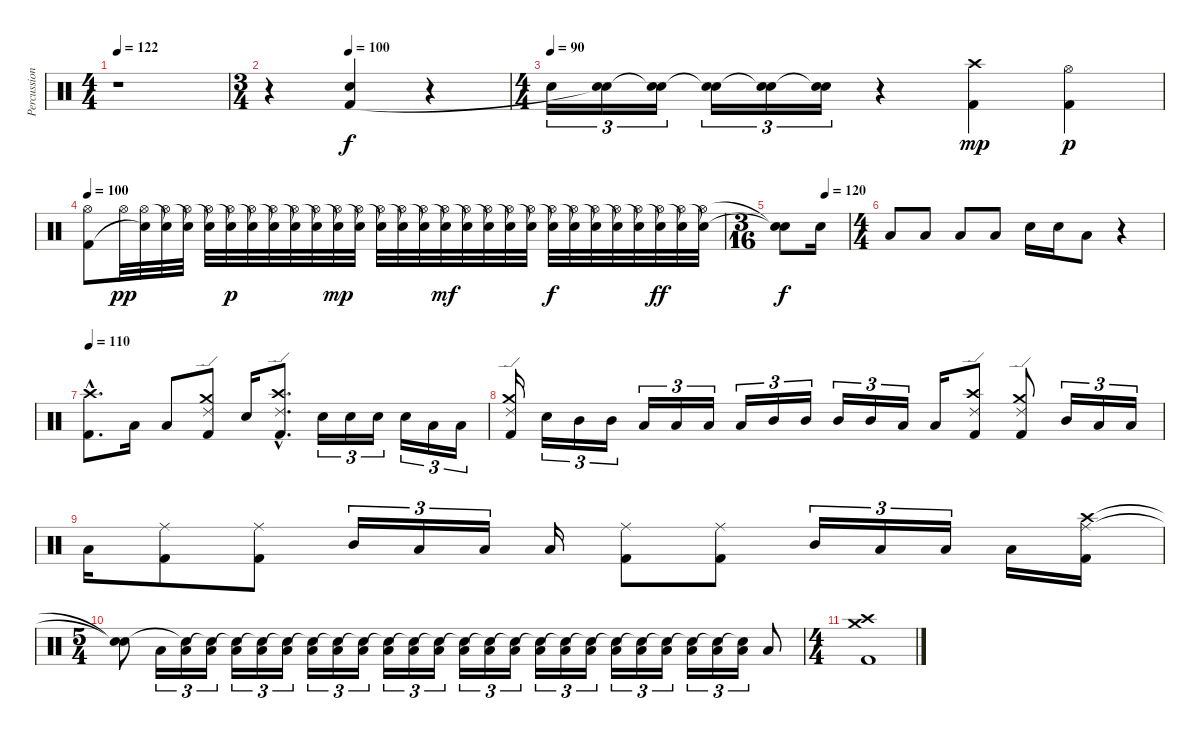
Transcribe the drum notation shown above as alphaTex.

\track ("Percussion" "Percussion") {instrument percussion}
\staff {score}
\articulation defaults
\ts (4 4)
\tempo 122
\clef neutral
\ks c
r.1{dy mp} |
\ts (3 4)
\tempo (100 0.3333333333333333)
r.4 ("Electric Snare (hit)" "Kick (hit) 2").4{dy f volume 8} r.4 |
\ts (4 4)
\tempo (90)
"Electric Snare (hit)".16{tu (3 2) volume 4} ("Electric Snare (hit)" "Electric Snare (hit)"{t}).16{tu (3 2)} ("Electric Snare (hit)"{t} "Electric Snare (hit)").16{tu (3 2)} ("Electric Snare (hit)" "Electric Snare (hit)"{t}).16{tu (3 2)} ("Electric Snare (hit)"{t} "Electric Snare (hit)").16{tu (3 2)} ("Electric Snare (hit)" "Electric Snare (hit)"{t}).16{tu (3 2)} r.4 ("Crash high (hit)" "Kick (hit) 2").4{dy mp volume 13} ("Hi-Hat (open)" "Kick (hit) 2").4{dy p} |
\tempo 100
("Hi-Hat (open)" "Kick (hit) 2").8 "Hi-Hat (open)".32{dy pp} ("Hi-Hat (open)" "Snare (hit)"{t}).32 ("Snare (hit)"{t} "Hi-Hat (open)").32 ("Hi-Hat (open)" "Snare (hit)"{t}).32 ("Snare (hit)"{t} "Hi-Hat (open)").32 ("Hi-Hat (open)" "Snare (hit)"{t}).32{dy p} ("Snare (hit)"{t} "Hi-Hat (open)").32 ("Hi-Hat (open)" "Snare (hit)"{t}).32 ("Snare (hit)"{t} "Hi-Hat (open)").32 ("Hi-Hat (open)" "Snare (hit)"{t}).32 ("Snare (hit)"{t} "Hi-Hat (open)").32{dy mp} ("Hi-Hat (open)" "Snare (hit)"{t}).32 ("Snare (hit)"{t} "Hi-Hat (open)").32 ("Hi-Hat (open)" "Snare (hit)"{t}).32 ("Snare (hit)"{t} "Hi-Hat (open)").32 ("Hi-Hat (open)" "Snare (hit)"{t}).32{dy mf} ("Snare (hit)"{t} "Hi-Hat (open)").32 ("Hi-Hat (open)" "Snare (hit)"{t}).32 ("Snare (hit)"{t} "Hi-Hat (open)").32 ("Hi-Hat (open)" "Snare (hit)"{t}).32 ("Snare (hit)"{t} "Hi-Hat (open)").32{dy f} ("Hi-Hat (open)" "Snare (hit)"{t}).32 ("Snare (hit)"{t} "Hi-Hat (open)").32 ("Hi-Hat (open)" "Snare (hit)"{t}).32 ("Snare (hit)"{t} "Hi-Hat (open)").32 ("Hi-Hat (open)" "Snare (hit)"{t}).32{dy ff} ("Snare (hit)"{t} "Hi-Hat (open)").32 ("Hi-Hat (open)" "Snare (hit)"{t}).32 |
\ts (3 16)
\tempo (120 0.6666666666666666)
("Snare (hit)"{t} "Snare (hit)"{t}).8{dy f} "Electric Snare (hit)".16 |
\ts (4 4)
"Low Tom (hit)".8 "Low Tom (hit)".8 "Low Tom (hit)".8 "Low Tom (hit)".8 "Electric Snare (hit)".16 "Electric Snare (hit)".16 "Low Tom (hit)".8 r.4 |
\tempo 110
("Crash high (hit)"{hac} "Kick (hit) 2"{hac}).8{d} "Low Tom (hit)".16 "Low Tom (hit)".8 ("Crash medium (hit)" "Ride (edge) 2" "Kick (hit) 2").8 "Electric Snare (hit)".16 ("Crash high (hit)"{hac} "Ride (edge) 2"{hac} "Kick (hit) 2"{hac}).8{d} "Electric Snare (hit)".16{tu (3 2)} "Electric Snare (hit)".16{tu (3 2)} "Electric Snare (hit)".16{tu (3 2)} "Electric Snare (hit)".16{tu (3 2)} "Low Tom (hit)".16{tu (3 2)} "Low Tom (hit)".16{tu (3 2)} |
("Crash medium (hit)" "Ride (edge) 2" "Kick (hit) 2").16 "Electric Snare (hit)".16{tu (3 2)} "Mid Tom (hit)".16{tu (3 2)} "Mid Tom (hit)".16{tu (3 2)} "Low Tom (hit)".16{tu (3 2)} "Low Tom (hit)".16{tu (3 2)} "Low Tom (hit)".16{tu (3 2)} "Low Tom (hit)".16{tu (3 2)} "Mid Tom (hit)".16{tu (3 2)} "Mid Tom (hit)".16{tu (3 2)} "Mid Tom (hit)".16{tu (3 2)} "Mid Tom (hit)".16{tu (3 2)} "Low Tom (hit)".16{tu (3 2)} "Low Tom (hit)".16 ("Crash high (hit)" "Ride (edge) 2" "Kick (hit) 2").8 ("Crash medium (hit)" "Ride (edge) 2" "Kick (hit) 2").8 "Mid Tom (hit)".16{tu (3 2)} "Low Tom (hit)".16{tu (3 2)} "Low Tom (hit)".16{tu (3 2)} |
"Low Tom (hit)".16 ("Ride (middle)" "Kick (hit) 2").8{balance 13} ("Ride (middle)" "Kick (hit) 2").8{balance 3} "Mid Tom (hit)".16{tu (3 2) balance 8} "Low Tom (hit)".16{tu (3 2)} "Low Tom (hit)".16{tu (3 2)} "Low Tom (hit)".16 ("Ride (middle)" "Kick (hit) 2").8{balance 13} ("Ride (middle)" "Kick (hit) 2").8{balance 3} "Mid Tom (hit)".16{tu (3 2) balance 8} "Low Tom (hit)".16{tu (3 2)} "Low Tom (hit)".16{tu (3 2)} "Low Tom (hit)".16 ("Crash high (hit)" "Ride (middle)" "Kick (hit) 2").16{balance 3} |
\ts (5 4)
("Snare (hit)"{t} "Snare (hit)"{t}).8 "Low Floor Tom (hit)".16{tu (3 2) balance 8} ("Low Floor Tom (hit)" "Snare (hit)"{t}).16{tu (3 2)} ("Snare (hit)"{t} "Low Floor Tom (hit)").16{tu (3 2)} ("Low Floor Tom (hit)" "Snare (hit)"{t}).16{tu (3 2)} ("Snare (hit)"{t} "Low Floor Tom (hit)").16{tu (3 2)} ("Low Floor Tom (hit)" "Snare (hit)"{t}).16{tu (3 2)} ("Snare (hit)"{t} "Low Floor Tom (hit)").16{tu (3 2)} ("Low Floor Tom (hit)" "Snare (hit)"{t}).16{tu (3 2)} ("Snare (hit)"{t} "Low Floor Tom (hit)").16{tu (3 2)} ("Low Floor Tom (hit)" "Snare (hit)"{t}).16{tu (3 2)} ("Snare (hit)"{t} "Low Floor Tom (hit)").16{tu (3 2)} ("Low Floor Tom (hit)" "Snare (hit)"{t}).16{tu (3 2)} ("Snare (hit)"{t} "Low Floor Tom (hit)").16{tu (3 2)} ("Low Floor Tom (hit)" "Snare (hit)"{t}).16{tu (3 2)} ("Snare (hit)"{t} "Low Floor Tom (hit)").16{tu (3 2)} ("Low Floor Tom (hit)" "Snare (hit)"{t}).16{tu (3 2)} ("Snare (hit)"{t} "Low Floor Tom (hit)").16{tu (3 2)} ("Low Floor Tom (hit)" "Snare (hit)"{t}).16{tu (3 2)} ("Snare (hit)"{t} "Low Floor Tom (hit)").16{tu (3 2)} ("Low Floor Tom (hit)" "Snare (hit)"{t}).16{tu (3 2)} ("Snare (hit)"{t} "Low Floor Tom (hit)").16{tu (3 2)} ("Low Floor Tom (hit)" "Snare (hit)"{t}).16{tu (3 2)} ("Snare (hit)"{t} "Low Floor Tom (hit)").16{tu (3 2)} ("Low Floor Tom (hit)" "Snare (hit)"{t}).16{tu (3 2)} "Low Floor Tom (hit)".8 |
\ts (4 4)
("Crash high (hit)" "Crash medium (hit)" "Kick (hit) 2").1
